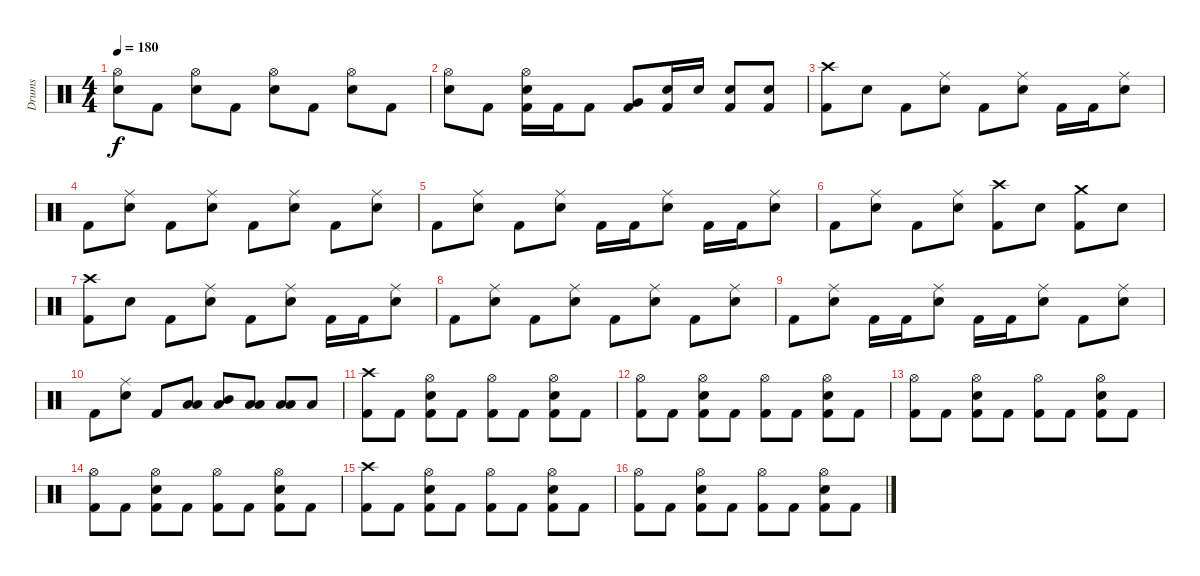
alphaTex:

\track ("Drums" "Drums") {instrument percussion}
\staff {score}
\articulation defaults
\ts (4 4)
\tempo 180
\clef neutral
\ks c
("Hi-Hat (open)" "Electric Snare (hit)").8{dy f} "Kick (hit) 2".8 ("Hi-Hat (open)" "Electric Snare (hit)").8 "Kick (hit) 2".8 ("Hi-Hat (open)" "Electric Snare (hit)").8 "Kick (hit) 2".8 ("Hi-Hat (open)" "Electric Snare (hit)").8 "Kick (hit) 2".8 |
("Hi-Hat (open)" "Electric Snare (hit)").8 "Kick (hit) 2".8 ("Hi-Hat (open)" "Electric Snare (hit)" "Kick (hit) 2").16 "Kick (hit) 2".16 "Kick (hit) 2".8 ("Very Low Tom (hit)" "Kick (hit) 2").8 ("Electric Snare (hit)" "Kick (hit) 2").16 "Electric Snare (hit)".16 ("Electric Snare (hit)" "Kick (hit) 2").8 ("Electric Snare (hit)" "Kick (hit) 2").8 |
("Crash high (hit)" "Kick (hit) 2").8 "Electric Snare (hit)".8 "Kick (hit) 2".8 ("Ride (middle)" "Electric Snare (hit)").8 "Kick (hit) 2".8 ("Ride (middle)" "Electric Snare (hit)").8 "Kick (hit) 2".16 "Kick (hit) 2".16 ("Ride (middle)" "Electric Snare (hit)").8 |
"Kick (hit) 2".8 ("Ride (middle)" "Electric Snare (hit)").8 "Kick (hit) 2".8 ("Ride (middle)" "Electric Snare (hit)").8 "Kick (hit) 2".8 ("Ride (middle)" "Electric Snare (hit)").8 "Kick (hit) 2".8 ("Ride (middle)" "Electric Snare (hit)").8 |
"Kick (hit) 2".8 ("Ride (middle)" "Electric Snare (hit)").8 "Kick (hit) 2".8 ("Ride (middle)" "Electric Snare (hit)").8 "Kick (hit) 2".16 "Kick (hit) 2".16 ("Ride (middle)" "Electric Snare (hit)").8 "Kick (hit) 2".16 "Kick (hit) 2".16 ("Ride (middle)" "Electric Snare (hit)").8 |
"Kick (hit) 2".8 ("Ride (middle)" "Electric Snare (hit)").8 "Kick (hit) 2".8 ("Ride (middle)" "Electric Snare (hit)").8 ("Crash high (hit)" "Kick (hit) 2").8 "Electric Snare (hit)".8 ("Crash medium (hit)" "Kick (hit) 2").8 "Electric Snare (hit)".8 |
("Crash high (hit)" "Kick (hit) 2").8 "Electric Snare (hit)".8 "Kick (hit) 2".8 ("Ride (middle)" "Electric Snare (hit)").8 "Kick (hit) 2".8 ("Ride (middle)" "Electric Snare (hit)").8 "Kick (hit) 2".16 "Kick (hit) 2".16 ("Ride (middle)" "Electric Snare (hit)").8 |
"Kick (hit) 2".8 ("Ride (middle)" "Electric Snare (hit)").8 "Kick (hit) 2".8 ("Ride (middle)" "Electric Snare (hit)").8 "Kick (hit) 2".8 ("Ride (middle)" "Electric Snare (hit)").8 "Kick (hit) 2".8 ("Ride (middle)" "Electric Snare (hit)").8 |
"Kick (hit) 2".8 ("Ride (middle)" "Electric Snare (hit)").8 "Kick (hit) 2".16 "Kick (hit) 2".16 ("Ride (middle)" "Electric Snare (hit)").8 "Kick (hit) 2".16 "Kick (hit) 2".16 ("Ride (middle)" "Electric Snare (hit)").8 "Kick (hit) 2".8 ("Ride (middle)" "Electric Snare (hit)").8 |
"Kick (hit) 2".8 ("Ride (middle)" "Electric Snare (hit)").8 "Kick (hit) 2".8 ("Low Tom (hit)" "Low Floor Tom (hit)").8 ("Mid Tom (hit)" "Low Floor Tom (hit)").8 ("Low Tom (hit)" "Low Floor Tom (hit)").8 ("Low Tom (hit)" "Low Floor Tom (hit)").8 "Low Floor Tom (hit)".8 |
("Crash high (hit)" "Kick (hit) 2").8 "Kick (hit) 2".8 ("Hi-Hat (open)" "Electric Snare (hit)" "Kick (hit) 2").8 "Kick (hit) 2".8 ("Hi-Hat (open)" "Kick (hit) 2").8 "Kick (hit) 2".8 ("Hi-Hat (open)" "Electric Snare (hit)" "Kick (hit) 2").8 "Kick (hit) 2".8 |
("Hi-Hat (open)" "Kick (hit) 2").8 "Kick (hit) 2".8 ("Hi-Hat (open)" "Electric Snare (hit)" "Kick (hit) 2").8 "Kick (hit) 2".8 ("Hi-Hat (open)" "Kick (hit) 2").8 "Kick (hit) 2".8 ("Hi-Hat (open)" "Electric Snare (hit)" "Kick (hit) 2").8 "Kick (hit) 2".8 |
("Hi-Hat (open)" "Kick (hit) 2").8 "Kick (hit) 2".8 ("Hi-Hat (open)" "Electric Snare (hit)" "Kick (hit) 2").8 "Kick (hit) 2".8 ("Hi-Hat (open)" "Kick (hit) 2").8 "Kick (hit) 2".8 ("Hi-Hat (open)" "Electric Snare (hit)" "Kick (hit) 2").8 "Kick (hit) 2".8 |
("Hi-Hat (open)" "Kick (hit) 2").8 "Kick (hit) 2".8 ("Hi-Hat (open)" "Electric Snare (hit)" "Kick (hit) 2").8 "Kick (hit) 2".8 ("Hi-Hat (open)" "Kick (hit) 2").8 "Kick (hit) 2".8 ("Hi-Hat (open)" "Electric Snare (hit)" "Kick (hit) 2").8 "Kick (hit) 2".8 |
("Crash high (hit)" "Kick (hit) 2").8 "Kick (hit) 2".8 ("Hi-Hat (open)" "Electric Snare (hit)" "Kick (hit) 2").8 "Kick (hit) 2".8 ("Hi-Hat (open)" "Kick (hit) 2").8 "Kick (hit) 2".8 ("Hi-Hat (open)" "Electric Snare (hit)" "Kick (hit) 2").8 "Kick (hit) 2".8 |
("Hi-Hat (open)" "Kick (hit) 2").8 "Kick (hit) 2".8 ("Hi-Hat (open)" "Electric Snare (hit)" "Kick (hit) 2").8 "Kick (hit) 2".8 ("Hi-Hat (open)" "Kick (hit) 2").8 "Kick (hit) 2".8 ("Hi-Hat (open)" "Electric Snare (hit)" "Kick (hit) 2").8 "Kick (hit) 2".8
